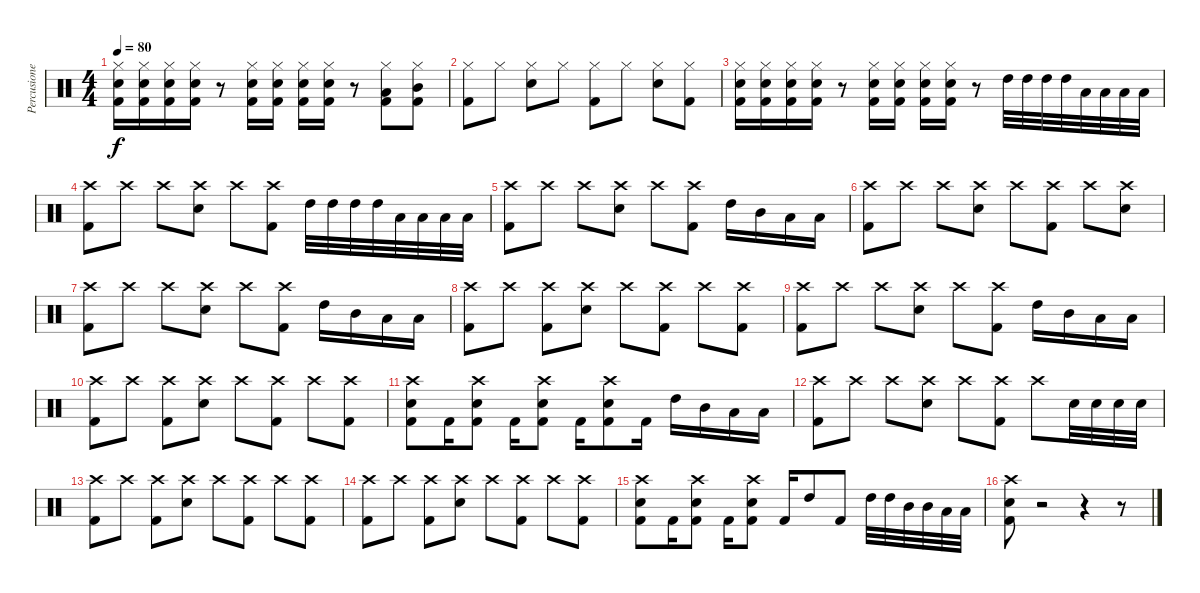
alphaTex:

\track ("Percusiones" "Percusione") {instrument percussion}
\staff {score}
\articulation defaults
\ts (4 4)
\tempo 80
\clef neutral
\ks c
("Hi-Hat (closed)" "Electric Snare (hit)" "Kick (hit) 2").16{dy f} ("Hi-Hat (closed)" "Electric Snare (hit)" "Kick (hit) 2").16 ("Hi-Hat (closed)" "Electric Snare (hit)" "Kick (hit) 2").16 ("Hi-Hat (closed)" "Electric Snare (hit)" "Kick (hit) 2").16 r.8 ("Hi-Hat (closed)" "Electric Snare (hit)" "Kick (hit) 2").16 ("Hi-Hat (closed)" "Electric Snare (hit)" "Kick (hit) 2").16 ("Hi-Hat (closed)" "Electric Snare (hit)" "Kick (hit) 2").16 ("Hi-Hat (closed)" "Electric Snare (hit)" "Kick (hit) 2").16 r.8 ("Hi-Hat (closed)" "Low Tom (hit)" "Kick (hit) 2").8 ("Hi-Hat (closed)" "Mid Tom (hit)" "Kick (hit) 2").8 |
("Hi-Hat (closed)" "Kick (hit) 2").8 "Hi-Hat (closed)".8 ("Hi-Hat (closed)" "Electric Snare (hit)").8 "Hi-Hat (closed)".8 ("Hi-Hat (closed)" "Kick (hit) 2").8 "Hi-Hat (closed)".8 ("Hi-Hat (closed)" "Electric Snare (hit)").8 ("Hi-Hat (closed)" "Kick (hit) 2").8 |
("Hi-Hat (closed)" "Electric Snare (hit)" "Kick (hit) 2").16 ("Hi-Hat (closed)" "Electric Snare (hit)" "Kick (hit) 2").16 ("Hi-Hat (closed)" "Electric Snare (hit)" "Kick (hit) 2").16 ("Hi-Hat (closed)" "Electric Snare (hit)" "Kick (hit) 2").16 r.8 ("Hi-Hat (closed)" "Electric Snare (hit)" "Kick (hit) 2").16 ("Hi-Hat (closed)" "Electric Snare (hit)" "Kick (hit) 2").16 ("Hi-Hat (closed)" "Electric Snare (hit)" "Kick (hit) 2").16 ("Hi-Hat (closed)" "Electric Snare (hit)" "Kick (hit) 2").16 r.8 "High Tom (hit)".32 "High Tom (hit)".32 "High Tom (hit)".32 "High Tom (hit)".32 "Low Tom (hit)".32 "Low Tom (hit)".32 "Low Tom (hit)".32 "Low Tom (hit)".32 |
("Crash high (hit)" "Kick (hit) 2").8 "Crash high (hit)".8 "Crash high (hit)".8 ("Crash high (hit)" "Electric Snare (hit)").8 "Crash high (hit)".8 ("Crash high (hit)" "Kick (hit) 2").8 "High Tom (hit)".32 "High Tom (hit)".32 "High Tom (hit)".32 "High Tom (hit)".32 "Low Tom (hit)".32 "Low Tom (hit)".32 "Low Tom (hit)".32 "Low Tom (hit)".32 |
("Crash high (hit)" "Kick (hit) 2").8 "Crash high (hit)".8 "Crash high (hit)".8 ("Crash high (hit)" "Electric Snare (hit)").8 "Crash high (hit)".8 ("Crash high (hit)" "Kick (hit) 2").8 "High Tom (hit)".16 "Mid Tom (hit)".16 "Low Tom (hit)".16 "Low Tom (hit)".16 |
("Crash high (hit)" "Kick (hit) 2").8 "Crash high (hit)".8 "Crash high (hit)".8 ("Crash high (hit)" "Electric Snare (hit)").8 "Crash high (hit)".8 ("Crash high (hit)" "Kick (hit) 2").8 "Crash high (hit)".8 ("Crash high (hit)" "Electric Snare (hit)").8 |
("Crash high (hit)" "Kick (hit) 2").8 "Crash high (hit)".8 "Crash high (hit)".8 ("Crash high (hit)" "Electric Snare (hit)").8 "Crash high (hit)".8 ("Crash high (hit)" "Kick (hit) 2").8 "High Tom (hit)".16 "Mid Tom (hit)".16 "Low Tom (hit)".16 "Low Tom (hit)".16 |
("Crash high (hit)" "Kick (hit) 2").8 "Crash high (hit)".8 ("Crash high (hit)" "Kick (hit) 2").8 ("Crash high (hit)" "Electric Snare (hit)").8 "Crash high (hit)".8 ("Crash high (hit)" "Kick (hit) 2").8 "Crash high (hit)".8 ("Crash high (hit)" "Kick (hit) 2").8 |
("Crash high (hit)" "Kick (hit) 2").8 "Crash high (hit)".8 "Crash high (hit)".8 ("Crash high (hit)" "Electric Snare (hit)").8 "Crash high (hit)".8 ("Crash high (hit)" "Kick (hit) 2").8 "High Tom (hit)".16 "Mid Tom (hit)".16 "Low Tom (hit)".16 "Low Tom (hit)".16 |
("Crash high (hit)" "Kick (hit) 2").8 "Crash high (hit)".8 ("Crash high (hit)" "Kick (hit) 2").8 ("Crash high (hit)" "Electric Snare (hit)").8 "Crash high (hit)".8 ("Crash high (hit)" "Kick (hit) 2").8 "Crash high (hit)".8 ("Crash high (hit)" "Kick (hit) 2").8 |
("Crash high (hit)" "Electric Snare (hit)" "Kick (hit) 2").8 "Kick (hit) 2".16 ("Crash high (hit)" "Electric Snare (hit)" "Kick (hit) 2").8 "Kick (hit) 2".16 ("Crash high (hit)" "Electric Snare (hit)" "Kick (hit) 2").8 "Kick (hit) 2".16 ("Crash high (hit)" "Electric Snare (hit)" "Kick (hit) 2").8 "Kick (hit) 2".16 "High Tom (hit)".16 "Mid Tom (hit)".16 "Low Tom (hit)".16 "Low Tom (hit)".16 |
("Crash high (hit)" "Kick (hit) 2").8 "Crash high (hit)".8 "Crash high (hit)".8 ("Crash high (hit)" "Electric Snare (hit)").8 "Crash high (hit)".8 ("Crash high (hit)" "Kick (hit) 2").8 "Crash high (hit)".8 "Electric Snare (hit)".32 "Electric Snare (hit)".32 "Electric Snare (hit)".32 "Electric Snare (hit)".32 |
("Crash high (hit)" "Kick (hit) 2").8 "Crash high (hit)".8 ("Crash high (hit)" "Kick (hit) 2").8 ("Crash high (hit)" "Electric Snare (hit)").8 "Crash high (hit)".8 ("Crash high (hit)" "Kick (hit) 2").8 "Crash high (hit)".8 ("Crash high (hit)" "Kick (hit) 2").8 |
("Crash high (hit)" "Kick (hit) 2").8 "Crash high (hit)".8 ("Crash high (hit)" "Kick (hit) 2").8 ("Crash high (hit)" "Electric Snare (hit)").8 "Crash high (hit)".8 ("Crash high (hit)" "Kick (hit) 2").8 "Crash high (hit)".8 ("Crash high (hit)" "Kick (hit) 2").8 |
("Crash high (hit)" "Electric Snare (hit)" "Kick (hit) 2").8 "Kick (hit) 2".16 ("Crash high (hit)" "Electric Snare (hit)" "Kick (hit) 2").8 "Kick (hit) 2".16 ("Crash high (hit)" "Electric Snare (hit)" "Kick (hit) 2").8 "Kick (hit) 2".16 "High Tom (hit)".8 "Kick (hit) 2".8 "High Tom (hit)".32 "High Tom (hit)".32 "Mid Tom (hit)".32 "Mid Tom (hit)".32 "Low Tom (hit)".32 "Low Tom (hit)".32 |
("Crash high (hit)" "Electric Snare (hit)" "Kick (hit) 2").8 r.2 r.4 r.8
